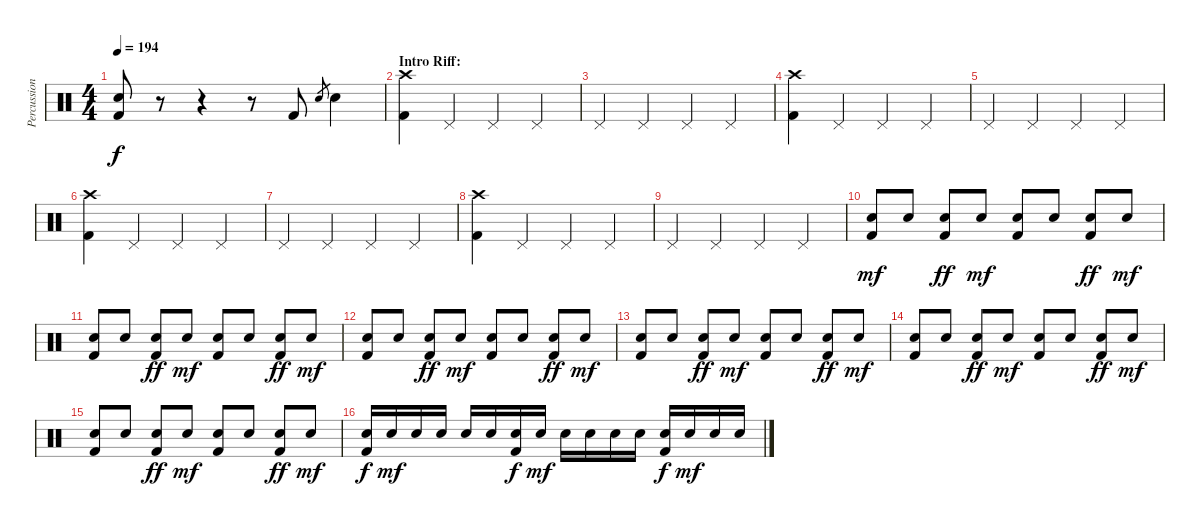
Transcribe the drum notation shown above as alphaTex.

\track ("Percussion" "Percussion") {instrument percussion}
\staff {score}
\articulation defaults
\ts (4 4)
\tempo 194
\clef neutral
\ks c
("Electric Snare (hit)" "Kick (hit) 2").8{dy f} r.8 r.4 r.8 "Kick (hit) 2".8 "Electric Snare (hit)".8{gr} "Electric Snare (hit)".4 |
\section ("" "Intro Riff:")
("Crash high (hit)" "Kick (hit) 2").4 "Pedal Hi-Hat (hit)".4 "Pedal Hi-Hat (hit)".4 "Pedal Hi-Hat (hit)".4 |
"Pedal Hi-Hat (hit)".4 "Pedal Hi-Hat (hit)".4 "Pedal Hi-Hat (hit)".4 "Pedal Hi-Hat (hit)".4 |
("Crash high (hit)" "Kick (hit) 2").4 "Pedal Hi-Hat (hit)".4 "Pedal Hi-Hat (hit)".4 "Pedal Hi-Hat (hit)".4 |
"Pedal Hi-Hat (hit)".4 "Pedal Hi-Hat (hit)".4 "Pedal Hi-Hat (hit)".4 "Pedal Hi-Hat (hit)".4 |
("Crash high (hit)" "Kick (hit) 2").4 "Pedal Hi-Hat (hit)".4 "Pedal Hi-Hat (hit)".4 "Pedal Hi-Hat (hit)".4 |
"Pedal Hi-Hat (hit)".4 "Pedal Hi-Hat (hit)".4 "Pedal Hi-Hat (hit)".4 "Pedal Hi-Hat (hit)".4 |
("Crash high (hit)" "Kick (hit) 2").4 "Pedal Hi-Hat (hit)".4 "Pedal Hi-Hat (hit)".4 "Pedal Hi-Hat (hit)".4 |
"Pedal Hi-Hat (hit)".4 "Pedal Hi-Hat (hit)".4 "Pedal Hi-Hat (hit)".4 "Pedal Hi-Hat (hit)".4 |
("Electric Snare (hit)" "Kick (hit) 2").8{dy mf} "Electric Snare (hit)".8 ("Electric Snare (hit)" "Kick (hit) 2").8{dy ff} "Electric Snare (hit)".8{dy mf} ("Electric Snare (hit)" "Kick (hit) 2").8 "Electric Snare (hit)".8 ("Electric Snare (hit)" "Kick (hit) 2").8{dy ff} "Electric Snare (hit)".8{dy mf} |
("Electric Snare (hit)" "Kick (hit) 2").8 "Electric Snare (hit)".8 ("Electric Snare (hit)" "Kick (hit) 2").8{dy ff} "Electric Snare (hit)".8{dy mf} ("Electric Snare (hit)" "Kick (hit) 2").8 "Electric Snare (hit)".8 ("Electric Snare (hit)" "Kick (hit) 2").8{dy ff} "Electric Snare (hit)".8{dy mf} |
("Electric Snare (hit)" "Kick (hit) 2").8 "Electric Snare (hit)".8 ("Electric Snare (hit)" "Kick (hit) 2").8{dy ff} "Electric Snare (hit)".8{dy mf} ("Electric Snare (hit)" "Kick (hit) 2").8 "Electric Snare (hit)".8 ("Electric Snare (hit)" "Kick (hit) 2").8{dy ff} "Electric Snare (hit)".8{dy mf} |
("Electric Snare (hit)" "Kick (hit) 2").8 "Electric Snare (hit)".8 ("Electric Snare (hit)" "Kick (hit) 2").8{dy ff} "Electric Snare (hit)".8{dy mf} ("Electric Snare (hit)" "Kick (hit) 2").8 "Electric Snare (hit)".8 ("Electric Snare (hit)" "Kick (hit) 2").8{dy ff} "Electric Snare (hit)".8{dy mf} |
("Electric Snare (hit)" "Kick (hit) 2").8 "Electric Snare (hit)".8 ("Electric Snare (hit)" "Kick (hit) 2").8{dy ff} "Electric Snare (hit)".8{dy mf} ("Electric Snare (hit)" "Kick (hit) 2").8 "Electric Snare (hit)".8 ("Electric Snare (hit)" "Kick (hit) 2").8{dy ff} "Electric Snare (hit)".8{dy mf} |
("Electric Snare (hit)" "Kick (hit) 2").8 "Electric Snare (hit)".8 ("Electric Snare (hit)" "Kick (hit) 2").8{dy ff} "Electric Snare (hit)".8{dy mf} ("Electric Snare (hit)" "Kick (hit) 2").8 "Electric Snare (hit)".8 ("Electric Snare (hit)" "Kick (hit) 2").8{dy ff} "Electric Snare (hit)".8{dy mf} |
("Electric Snare (hit)" "Kick (hit) 2").16{dy f} "Electric Snare (hit)".16{dy mf} "Electric Snare (hit)".16 "Electric Snare (hit)".16 "Electric Snare (hit)".16 "Electric Snare (hit)".16 ("Electric Snare (hit)" "Kick (hit) 2").16{dy f} "Electric Snare (hit)".16{dy mf} "Electric Snare (hit)".16 "Electric Snare (hit)".16 "Electric Snare (hit)".16 "Electric Snare (hit)".16 ("Electric Snare (hit)" "Kick (hit) 2").16{dy f} "Electric Snare (hit)".16{dy mf} "Electric Snare (hit)".16 "Electric Snare (hit)".16
